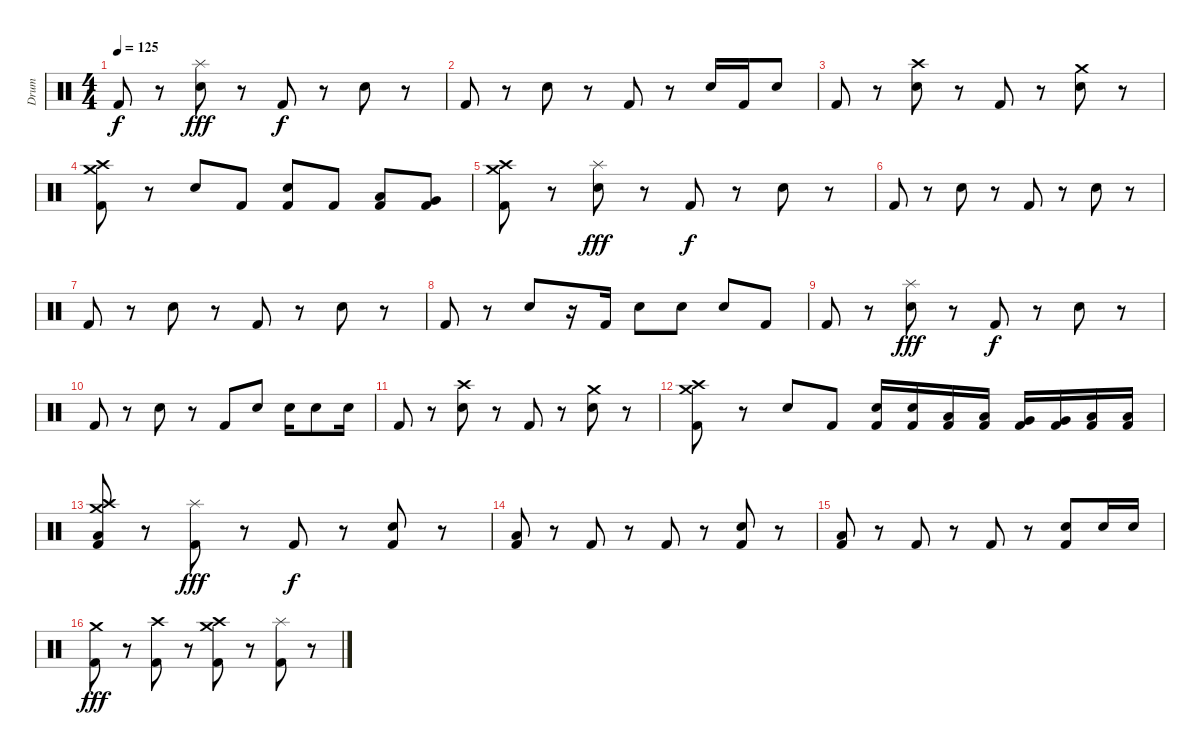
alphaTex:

\track ("Drum" "Drum") {instrument percussion}
\staff {score}
\articulation defaults
\ts (4 4)
\tempo 125
\clef neutral
\ks c "Kick (hit) 2".8{dy f}
r.8 ("Electric Snare (hit)" "Splash (hit)").8{dy fff} r.8 "Kick (hit) 2".8{dy f} r.8 "Electric Snare (hit)".8 r.8 |
"Kick (hit) 2".8 r.8 "Electric Snare (hit)".8 r.8 "Kick (hit) 2".8 r.8 "Electric Snare (hit)".16 "Kick (hit) 2".16 "Electric Snare (hit)".8 |
"Kick (hit) 2".8 r.8 ("Electric Snare (hit)" "Crash high (hit)").8 r.8 "Kick (hit) 2".8 r.8 ("Electric Snare (hit)" "Crash medium (hit)").8 r.8 |
("Crash medium (hit)" "Crash high (hit)" "Kick (hit) 2").8 r.8 "Electric Snare (hit)".8 "Kick (hit) 2".8 ("Electric Snare (hit)" "Kick (hit) 2").8 "Kick (hit) 2".8 ("Low Floor Tom (hit)" "Kick (hit) 2").8 ("Very Low Tom (hit)" "Kick (hit) 2").8 |
("Crash medium (hit)" "Crash high (hit)" "Kick (hit) 2").8 r.8 ("Electric Snare (hit)" "Splash (hit)").8{dy fff} r.8 "Kick (hit) 2".8{dy f} r.8 "Electric Snare (hit)".8 r.8 |
"Kick (hit) 2".8 r.8 "Electric Snare (hit)".8 r.8 "Kick (hit) 2".8 r.8 "Electric Snare (hit)".8 r.8 |
"Kick (hit) 2".8 r.8 "Electric Snare (hit)".8 r.8 "Kick (hit) 2".8 r.8 "Electric Snare (hit)".8 r.8 |
"Kick (hit) 2".8 r.8 "Electric Snare (hit)".8 r.16 "Kick (hit) 2".16 "Electric Snare (hit)".8 "Electric Snare (hit)".8 "Electric Snare (hit)".8 "Kick (hit) 2".8 |
"Kick (hit) 2".8 r.8 ("Electric Snare (hit)" "Splash (hit)").8{dy fff} r.8 "Kick (hit) 2".8{dy f} r.8 "Electric Snare (hit)".8 r.8 |
"Kick (hit) 2".8 r.8 "Electric Snare (hit)".8 r.8 "Kick (hit) 2".8 "Electric Snare (hit)".8 "Electric Snare (hit)".16 "Electric Snare (hit)".8 "Electric Snare (hit)".16 |
"Kick (hit) 2".8 r.8 ("Electric Snare (hit)" "Crash high (hit)").8 r.8 "Kick (hit) 2".8 r.8 ("Electric Snare (hit)" "Crash medium (hit)").8 r.8 |
("Crash medium (hit)" "Crash high (hit)" "Kick (hit) 2").8 r.8 "Electric Snare (hit)".8 "Kick (hit) 2".8 ("Electric Snare (hit)" "Kick (hit) 2").16 ("Electric Snare (hit)" "Kick (hit) 2").16 ("Low Tom (hit)" "Kick (hit) 2").16 ("Low Tom (hit)" "Kick (hit) 2").16 ("Very Low Tom (hit)" "Kick (hit) 2").16 ("Very Low Tom (hit)" "Kick (hit) 2").16 ("Low Floor Tom (hit)" "Kick (hit) 2").16 ("Low Floor Tom (hit)" "Kick (hit) 2").16 |
("Crash medium (hit)" "Crash high (hit)" "Low Floor Tom (hit)" "Kick (hit) 2").8 r.8 ("Splash (hit)" "Kick (hit) 2").8{dy fff} r.8 "Kick (hit) 2".8{dy f} r.8 ("Electric Snare (hit)" "Kick (hit) 2").8 r.8 |
("Low Floor Tom (hit)" "Kick (hit) 2").8 r.8 "Kick (hit) 2".8 r.8 "Kick (hit) 2".8 r.8 ("Electric Snare (hit)" "Kick (hit) 2").8 r.8 |
("Low Floor Tom (hit)" "Kick (hit) 2").8 r.8 "Kick (hit) 2".8 r.8 "Kick (hit) 2".8 r.8 ("Electric Snare (hit)" "Kick (hit) 2").8 "Electric Snare (hit)".16 "Electric Snare (hit)".16 |
("Crash medium (hit)" "Kick (hit) 2").8{dy fff} r.8 ("Crash high (hit)" "Kick (hit) 2").8 r.8 ("Crash high (hit)" "Crash medium (hit)" "Kick (hit) 2").8 r.8 ("Splash (hit)" "Kick (hit) 2").8 r.8
